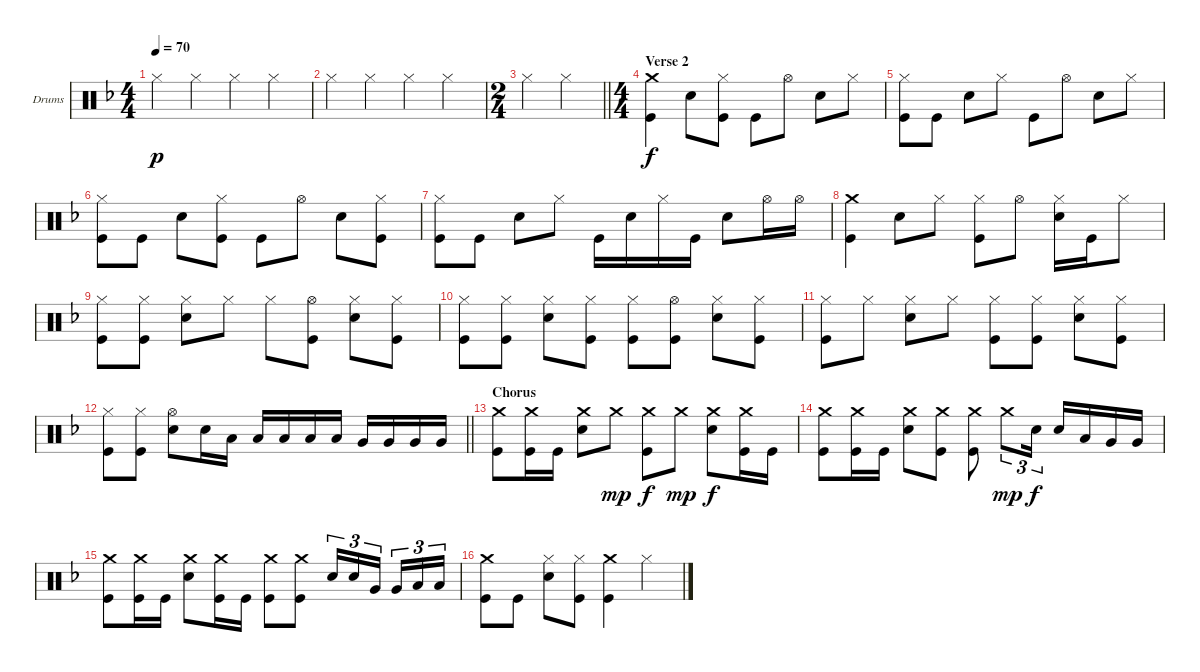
\bracketExtendMode groupsimilarinstruments
\firstSystemTrackNameOrientation horizontal
\otherSystemsTrackNameOrientation horizontal
\track ("Drumkit" "Drums") {instrument percussion}
\staff {score}
\articulation defaults
\ts (4 4)
\tempo 70
\clef neutral
\ks dminor "Hi-Hat (closed)".4{dy p} "Hi-Hat (closed)".4 "Hi-Hat (closed)".4 "Hi-Hat (closed)".4
|
"Hi-Hat (closed)".4 "Hi-Hat (closed)".4 "Hi-Hat (closed)".4 "Hi-Hat (closed)".4 |
\ts (2 4)
\beaming (8 2 2)
\barLineRight lightlight "Hi-Hat (closed)".4 "Hi-Hat (closed)".4
|
\ts (4 4)
\beaming (8 2 2 2 2)
\section ("" "Verse 2")
("Kick (hit)" "Crash medium (hit)").4{dy f} "Snare (hit) 2".8 ("Kick (hit)" "Hi-Hat (closed)").8 "Kick (hit)".8 "Hi-Hat (open)".8 "Snare (hit) 2".8 "Hi-Hat (closed)".8 |
("Kick (hit)" "Hi-Hat (closed)").8 "Kick (hit)".8 "Snare (hit) 2".8 "Hi-Hat (closed)".8 "Kick (hit)".8 "Hi-Hat (open)".8 "Snare (hit) 2".8 "Hi-Hat (closed)".8 |
("Kick (hit)" "Hi-Hat (closed)").8 "Kick (hit)".8 "Snare (hit) 2".8 ("Hi-Hat (closed)" "Kick (hit)").8 "Kick (hit)".8 "Hi-Hat (open)".8 "Snare (hit) 2".8 ("Hi-Hat (closed)" "Kick (hit)").8 |
("Kick (hit)" "Hi-Hat (closed)").8 "Kick (hit)".8 "Snare (hit) 2".8 "Hi-Hat (closed)".8 "Kick (hit)".16 "Snare (hit) 2".16 "Hi-Hat (closed)".16 "Kick (hit)".16 "Snare (hit) 2".8 "Hi-Hat (open)".16 "Hi-Hat (open)".16 |
("Kick (hit)" "Crash medium (hit)").4 "Snare (hit) 2".8 "Hi-Hat (closed)".8 ("Kick (hit)" "Hi-Hat (closed)").8 "Hi-Hat (open)".8 ("Snare (hit) 2" "Hi-Hat (closed)").16 "Kick (hit)".16 "Hi-Hat (closed)".8 |
("Kick (hit)" "Hi-Hat (closed)").8 ("Kick (hit)" "Hi-Hat (closed)").8 ("Snare (hit) 2" "Hi-Hat (closed)").8 "Hi-Hat (closed)".8 "Hi-Hat (closed)".8 ("Hi-Hat (open)" "Kick (hit)").8 ("Snare (hit) 2" "Hi-Hat (closed)").8 ("Hi-Hat (closed)" "Kick (hit)").8 |
("Kick (hit)" "Hi-Hat (closed)").8 ("Kick (hit)" "Hi-Hat (closed)").8 ("Snare (hit) 2" "Hi-Hat (closed)").8 ("Hi-Hat (closed)" "Kick (hit)").8 ("Kick (hit)" "Hi-Hat (closed)").8 ("Hi-Hat (open)" "Kick (hit)").8 ("Snare (hit) 2" "Hi-Hat (closed)").8 ("Hi-Hat (closed)" "Kick (hit)").8 |
("Kick (hit)" "Hi-Hat (closed)").8 "Hi-Hat (closed)".8 ("Snare (hit) 2" "Hi-Hat (closed)").8 "Hi-Hat (closed)".8 ("Kick (hit)" "Hi-Hat (closed)").8 ("Kick (hit)" "Hi-Hat (closed)").8 ("Snare (hit) 2" "Hi-Hat (closed)").8 ("Hi-Hat (closed)" "Kick (hit)").8 |
\barLineRight lightlight
("Kick (hit)" "Hi-Hat (closed)").8 ("Kick (hit)" "Hi-Hat (closed)").8 ("Hi-Hat (open)" "Snare (hit) 2").8 "Snare (hit) 2".16 "Low Tom (hit)".16 "Low Tom (hit)".16 "Low Tom (hit)".16 "Low Tom (hit)".16 "Low Tom (hit)".16 "Very Low Tom (hit)".16 "Very Low Tom (hit)".16 "Very Low Tom (hit)".16 "Very Low Tom (hit)".16 |
\section ("" "Chorus")
("Kick (hit)" "Crash medium (hit)").8 ("Kick (hit)" "Crash medium (hit)").16 "Kick (hit)".16 ("Snare (hit) 2" "Crash medium (hit)").8 "Crash medium (hit)".8{dy mp} ("Kick (hit)" "Crash medium (hit)").8{dy f} "Crash medium (hit)".8{dy mp} ("Snare (hit) 2" "Crash medium (hit)").8{dy f} ("Kick (hit)" "Crash medium (hit)").16 "Kick (hit)".16 |
("Kick (hit)" "Crash medium (hit)").8 ("Kick (hit)" "Crash medium (hit)").16 "Kick (hit)".16 ("Snare (hit) 2" "Crash medium (hit)").8 ("Kick (hit)" "Crash medium (hit)").8 ("Kick (hit)" "Crash medium (hit)").8 "Crash medium (hit)".8{tu (3 2) dy mp} "Snare (hit) 2".16{tu (3 2) dy f} "Snare (hit) 2".16 "Low Tom (hit)".16 "Very Low Tom (hit)".16 "Very Low Tom (hit)".16 |
("Kick (hit)" "Crash medium (hit)").8 ("Kick (hit)" "Crash medium (hit)").16 "Kick (hit)".16 ("Snare (hit) 2" "Crash medium (hit)").8 ("Kick (hit)" "Crash medium (hit)").16 "Kick (hit)".16 ("Kick (hit)" "Crash medium (hit)").8 ("Kick (hit)" "Crash medium (hit)").8 "Snare (hit) 2".16{tu (3 2)} "Snare (hit) 2".16{tu (3 2)} "Very Low Tom (hit)".16{tu (3 2)} "Very Low Tom (hit)".16{tu (3 2)} "Low Tom (hit)".16{tu (3 2)} "Low Tom (hit)".16{tu (3 2)} |
("Kick (hit)" "Crash medium (hit)").8 "Kick (hit)".8 ("Snare (hit) 2" "Hi-Hat (closed)").8 ("Kick (hit)" "Hi-Hat (closed)").8 ("Kick (hit)" "Crash medium (hit)").4 "Hi-Hat (closed)".4
